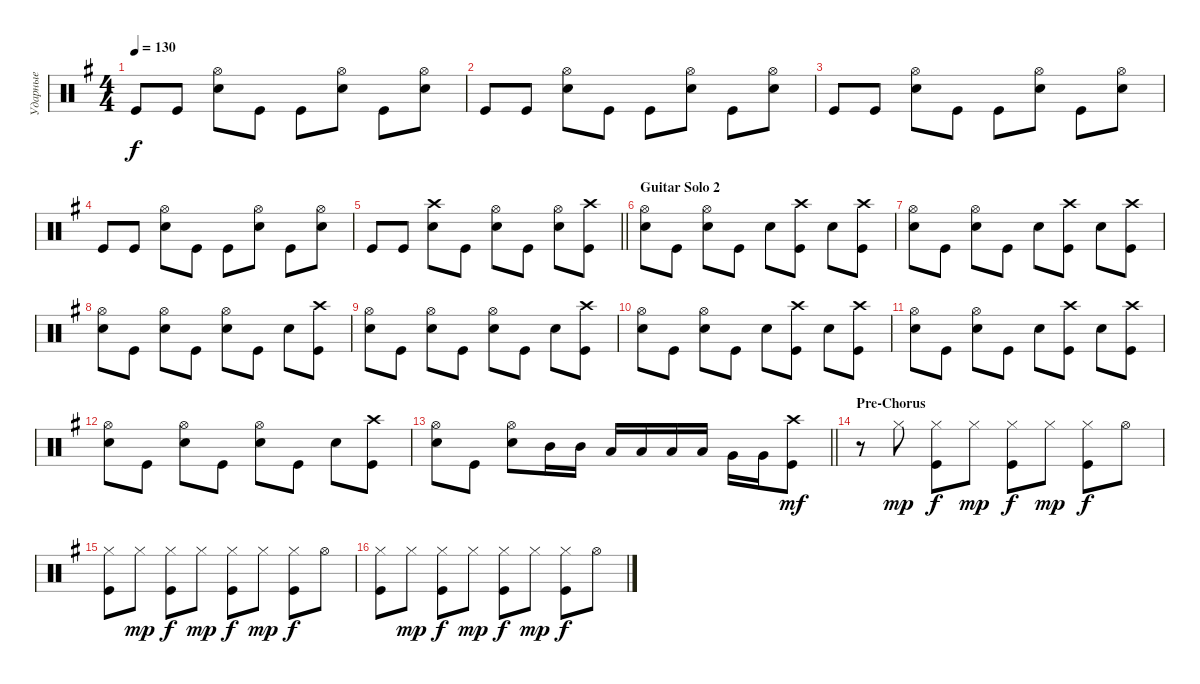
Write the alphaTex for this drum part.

\track ("Ударные" "Ударные") {instrument percussion}
\staff {score}
\articulation defaults
\ts (4 4)
\tempo 130
\clef neutral
\ks eminor "Kick (hit)".8{dy f} "Kick (hit)".8
("Snare (hit) 2" "Hi-Hat (open)").8 "Kick (hit)".8 "Kick (hit)".8 ("Snare (hit) 2" "Hi-Hat (open)").8 "Kick (hit)".8 ("Snare (hit) 2" "Hi-Hat (open)").8 |
"Kick (hit)".8 "Kick (hit)".8 ("Snare (hit) 2" "Hi-Hat (open)").8 "Kick (hit)".8 "Kick (hit)".8 ("Snare (hit) 2" "Hi-Hat (open)").8 "Kick (hit)".8 ("Snare (hit) 2" "Hi-Hat (open)").8 |
"Kick (hit)".8 "Kick (hit)".8 ("Snare (hit) 2" "Hi-Hat (open)").8 "Kick (hit)".8 "Kick (hit)".8 ("Snare (hit) 2" "Hi-Hat (open)").8 "Kick (hit)".8 ("Snare (hit) 2" "Hi-Hat (open)").8 |
"Kick (hit)".8 "Kick (hit)".8 ("Snare (hit) 2" "Hi-Hat (open)").8 "Kick (hit)".8 "Kick (hit)".8 ("Snare (hit) 2" "Hi-Hat (open)").8 "Kick (hit)".8 ("Snare (hit) 2" "Hi-Hat (open)").8 |
\barLineRight lightlight "Kick (hit)".8 "Kick (hit)".8
("Snare (hit) 2" "Crash high (hit)").8 "Kick (hit)".8 ("Snare (hit) 2" "Hi-Hat (open)").8 "Kick (hit)".8 ("Snare (hit) 2" "Hi-Hat (open)").8 ("Kick (hit)" "Crash high (hit)").8 |
\section ("" "Guitar Solo 2")
("Snare (hit) 2" "Hi-Hat (open)").8 "Kick (hit)".8 ("Snare (hit) 2" "Hi-Hat (open)").8 "Kick (hit)".8 "Snare (hit) 2".8 ("Kick (hit)" "Crash high (hit)").8 "Snare (hit) 2".8 ("Kick (hit)" "Crash high (hit)").8 |
("Snare (hit) 2" "Hi-Hat (open)").8 "Kick (hit)".8 ("Snare (hit) 2" "Hi-Hat (open)").8 "Kick (hit)".8 "Snare (hit) 2".8 ("Kick (hit)" "Crash high (hit)").8 "Snare (hit) 2".8 ("Kick (hit)" "Crash high (hit)").8 |
("Snare (hit) 2" "Hi-Hat (open)").8 "Kick (hit)".8 ("Snare (hit) 2" "Hi-Hat (open)").8 "Kick (hit)".8 ("Snare (hit) 2" "Hi-Hat (open)").8 "Kick (hit)".8 "Snare (hit) 2".8 ("Kick (hit)" "Crash high (hit)").8 |
("Snare (hit) 2" "Hi-Hat (open)").8 "Kick (hit)".8 ("Snare (hit) 2" "Hi-Hat (open)").8 "Kick (hit)".8 ("Snare (hit) 2" "Hi-Hat (open)").8 "Kick (hit)".8 "Snare (hit) 2".8 ("Kick (hit)" "Crash high (hit)").8 |
("Snare (hit) 2" "Hi-Hat (open)").8 "Kick (hit)".8 ("Snare (hit) 2" "Hi-Hat (open)").8 "Kick (hit)".8 "Snare (hit) 2".8 ("Kick (hit)" "Crash high (hit)").8 "Snare (hit) 2".8 ("Kick (hit)" "Crash high (hit)").8 |
("Snare (hit) 2" "Hi-Hat (open)").8 "Kick (hit)".8 ("Snare (hit) 2" "Hi-Hat (open)").8 "Kick (hit)".8 "Snare (hit) 2".8 ("Kick (hit)" "Crash high (hit)").8 "Snare (hit) 2".8 ("Kick (hit)" "Crash high (hit)").8 |
("Snare (hit) 2" "Hi-Hat (open)").8 "Kick (hit)".8 ("Snare (hit) 2" "Hi-Hat (open)").8 "Kick (hit)".8 ("Snare (hit) 2" "Hi-Hat (open)").8 "Kick (hit)".8 "Snare (hit) 2".8 ("Kick (hit)" "Crash high (hit)").8 |
\barLineRight lightlight
("Snare (hit) 2" "Hi-Hat (open)").8 "Kick (hit)".8 ("Snare (hit) 2" "Hi-Hat (open)").8 "Mid Tom (hit)".16 "Mid Tom (hit)".16 "Low Tom (hit)".16 "Low Tom (hit)".16 "Low Tom (hit)".16 "Low Tom (hit)".16 "Very Low Tom (hit)".16 "Very Low Tom (hit)".16 ("Kick (hit)" "Crash high (hit)").8{dy mf} |
\section ("" "Pre-Chorus")
r.8 "Hi-Hat (closed)".8{dy mp} ("Hi-Hat (closed)" "Kick (hit)").8{dy f} "Hi-Hat (closed)".8{dy mp} ("Hi-Hat (closed)" "Kick (hit)").8{dy f} "Hi-Hat (closed)".8{dy mp} ("Hi-Hat (closed)" "Kick (hit)").8{dy f} "Hi-Hat (open)".8 |
("Hi-Hat (closed)" "Kick (hit)").8 "Hi-Hat (closed)".8{dy mp} ("Hi-Hat (closed)" "Kick (hit)").8{dy f} "Hi-Hat (closed)".8{dy mp} ("Hi-Hat (closed)" "Kick (hit)").8{dy f} "Hi-Hat (closed)".8{dy mp} ("Hi-Hat (closed)" "Kick (hit)").8{dy f} "Hi-Hat (open)".8 |
("Hi-Hat (closed)" "Kick (hit)").8 "Hi-Hat (closed)".8{dy mp} ("Hi-Hat (closed)" "Kick (hit)").8{dy f} "Hi-Hat (closed)".8{dy mp} ("Hi-Hat (closed)" "Kick (hit)").8{dy f} "Hi-Hat (closed)".8{dy mp} ("Hi-Hat (closed)" "Kick (hit)").8{dy f} "Hi-Hat (open)".8
